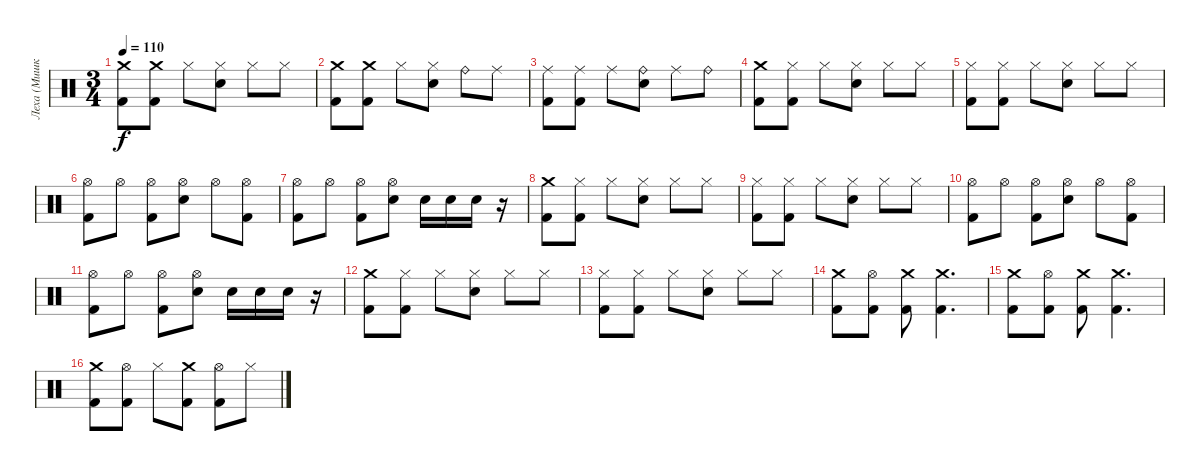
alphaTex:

\track ("Леха (Мишка Гами)" "Леха (Мишк") {instrument percussion}
\staff {score}
\articulation defaults
\ts (3 4)
\tempo 110
\clef neutral
\ks c
("Crash medium (hit)" "Kick (hit) 2").8{dy f} ("Crash medium (hit)" "Kick (hit) 2").8 "Hi-Hat (closed)".8 ("Hi-Hat (closed)" "Snare (hit) 2").8 "Hi-Hat (closed)".8 "Hi-Hat (closed)".8 |
("Crash medium (hit)" "Kick (hit) 2").8 ("Crash medium (hit)" "Kick (hit) 2").8 "Hi-Hat (closed)".8 ("Hi-Hat (closed)" "Snare (hit) 2").8 "Ride (bell)".8 "Ride (middle)".8 |
("Ride (middle)" "Kick (hit) 2").8 ("Ride (middle)" "Kick (hit) 2").8 "Ride (middle)".8 ("Ride (bell)" "Snare (hit) 2").8 "Ride (middle)".8 "Ride (bell)".8 |
("Crash medium (hit)" "Kick (hit) 2").8 ("Hi-Hat (closed)" "Kick (hit) 2").8 "Hi-Hat (closed)".8 ("Hi-Hat (closed)" "Snare (hit) 2").8 "Hi-Hat (closed)".8 "Hi-Hat (closed)".8 |
("Hi-Hat (closed)" "Kick (hit) 2").8 ("Hi-Hat (closed)" "Kick (hit) 2").8 "Hi-Hat (closed)".8 ("Hi-Hat (closed)" "Snare (hit) 2").8 "Hi-Hat (closed)".8 "Hi-Hat (closed)".8 |
("Hi-Hat (open)" "Kick (hit) 2").8 "Hi-Hat (open)".8 ("Hi-Hat (open)" "Kick (hit) 2").8 ("Hi-Hat (open)" "Snare (hit) 2").8 "Hi-Hat (open)".8 ("Hi-Hat (open)" "Kick (hit) 2").8 |
("Hi-Hat (open)" "Kick (hit) 2").8 "Hi-Hat (open)".8 ("Hi-Hat (open)" "Kick (hit) 2").8 ("Hi-Hat (open)" "Snare (hit) 2").8 "Snare (hit) 2".16 "Snare (hit) 2".16 "Snare (hit) 2".16 r.16 |
("Crash medium (hit)" "Kick (hit) 2").8 ("Hi-Hat (closed)" "Kick (hit) 2").8 "Hi-Hat (closed)".8 ("Hi-Hat (closed)" "Snare (hit) 2").8 "Hi-Hat (closed)".8 "Hi-Hat (closed)".8 |
("Hi-Hat (closed)" "Kick (hit) 2").8 ("Hi-Hat (closed)" "Kick (hit) 2").8 "Hi-Hat (closed)".8 ("Hi-Hat (closed)" "Snare (hit) 2").8 "Hi-Hat (closed)".8 "Hi-Hat (closed)".8 |
("Hi-Hat (open)" "Kick (hit) 2").8 "Hi-Hat (open)".8 ("Hi-Hat (open)" "Kick (hit) 2").8 ("Hi-Hat (open)" "Snare (hit) 2").8 "Hi-Hat (open)".8 ("Hi-Hat (open)" "Kick (hit) 2").8 |
("Hi-Hat (open)" "Kick (hit) 2").8 "Hi-Hat (open)".8 ("Hi-Hat (open)" "Kick (hit) 2").8 ("Hi-Hat (open)" "Snare (hit) 2").8 "Snare (hit) 2".16 "Snare (hit) 2".16 "Snare (hit) 2".16 r.16 |
("Crash medium (hit)" "Kick (hit) 2").8 ("Hi-Hat (closed)" "Kick (hit) 2").8 "Hi-Hat (closed)".8 ("Hi-Hat (closed)" "Snare (hit) 2").8 "Hi-Hat (closed)".8 "Hi-Hat (closed)".8 |
("Hi-Hat (closed)" "Kick (hit) 2").8 ("Hi-Hat (closed)" "Kick (hit) 2").8 "Hi-Hat (closed)".8 ("Hi-Hat (closed)" "Snare (hit) 2").8 "Hi-Hat (closed)".8 "Hi-Hat (closed)".8 |
("Crash medium (hit)" "Kick (hit) 2").8 ("Hi-Hat (open)" "Kick (hit) 2").8 ("Crash medium (hit)" "Kick (hit) 2").8 ("Crash medium (hit)" "Kick (hit) 2").4{d} |
("Crash medium (hit)" "Kick (hit) 2").8 ("Hi-Hat (open)" "Kick (hit) 2").8 ("Crash medium (hit)" "Kick (hit) 2").8 ("Crash medium (hit)" "Kick (hit) 2").4{d} |
("Crash medium (hit)" "Kick (hit) 2").8 ("Hi-Hat (open)" "Kick (hit) 2").8 "Hi-Hat (closed)".8 ("Crash medium (hit)" "Kick (hit) 2").8 ("Hi-Hat (open)" "Kick (hit) 2").8 "Hi-Hat (closed)".8
